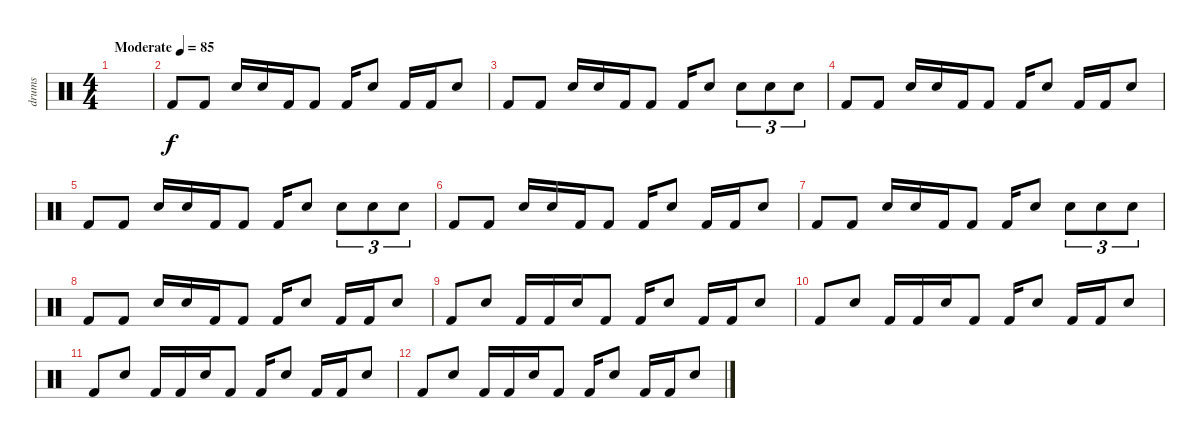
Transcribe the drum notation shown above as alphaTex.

\track ("drums" "drums") {instrument percussion}
\staff {score}
\articulation defaults
\ts (4 4)
\tempo (85 "Moderate")
\clef neutral
\ks c
|
"Kick (hit) 2".8 "Kick (hit) 2".8 "Electric Snare (hit)".16 "Electric Snare (hit)".16 "Kick (hit) 2".16 "Kick (hit) 2".8 "Kick (hit) 2".16 "Electric Snare (hit)".8 "Kick (hit) 2".16 "Kick (hit) 2".16 "Electric Snare (hit)".8 |
"Kick (hit) 2".8 "Kick (hit) 2".8 "Electric Snare (hit)".16 "Electric Snare (hit)".16 "Kick (hit) 2".16 "Kick (hit) 2".8 "Kick (hit) 2".16 "Electric Snare (hit)".8 "Electric Snare (hit)".8{tu (3 2)} "Electric Snare (hit)".8{tu (3 2)} "Electric Snare (hit)".8{tu (3 2)} |
"Kick (hit) 2".8 "Kick (hit) 2".8 "Electric Snare (hit)".16 "Electric Snare (hit)".16 "Kick (hit) 2".16 "Kick (hit) 2".8 "Kick (hit) 2".16 "Electric Snare (hit)".8 "Kick (hit) 2".16 "Kick (hit) 2".16 "Electric Snare (hit)".8 |
"Kick (hit) 2".8 "Kick (hit) 2".8 "Electric Snare (hit)".16 "Electric Snare (hit)".16 "Kick (hit) 2".16 "Kick (hit) 2".8 "Kick (hit) 2".16 "Electric Snare (hit)".8 "Electric Snare (hit)".8{tu (3 2)} "Electric Snare (hit)".8{tu (3 2)} "Electric Snare (hit)".8{tu (3 2)} |
"Kick (hit) 2".8 "Kick (hit) 2".8 "Electric Snare (hit)".16 "Electric Snare (hit)".16 "Kick (hit) 2".16 "Kick (hit) 2".8 "Kick (hit) 2".16 "Electric Snare (hit)".8 "Kick (hit) 2".16 "Kick (hit) 2".16 "Electric Snare (hit)".8 |
"Kick (hit) 2".8 "Kick (hit) 2".8 "Electric Snare (hit)".16 "Electric Snare (hit)".16 "Kick (hit) 2".16 "Kick (hit) 2".8 "Kick (hit) 2".16 "Electric Snare (hit)".8 "Electric Snare (hit)".8{tu (3 2)} "Electric Snare (hit)".8{tu (3 2)} "Electric Snare (hit)".8{tu (3 2)} |
"Kick (hit) 2".8 "Kick (hit) 2".8 "Electric Snare (hit)".16 "Electric Snare (hit)".16 "Kick (hit) 2".16 "Kick (hit) 2".8 "Kick (hit) 2".16 "Electric Snare (hit)".8 "Kick (hit) 2".16 "Kick (hit) 2".16 "Electric Snare (hit)".8 |
"Kick (hit) 2".8 "Electric Snare (hit)".8 "Kick (hit) 2".16 "Kick (hit) 2".16 "Electric Snare (hit)".16 "Kick (hit) 2".8 "Kick (hit) 2".16 "Electric Snare (hit)".8 "Kick (hit) 2".16 "Kick (hit) 2".16 "Electric Snare (hit)".8 |
"Kick (hit) 2".8 "Electric Snare (hit)".8 "Kick (hit) 2".16 "Kick (hit) 2".16 "Electric Snare (hit)".16 "Kick (hit) 2".8 "Kick (hit) 2".16 "Electric Snare (hit)".8 "Kick (hit) 2".16 "Kick (hit) 2".16 "Electric Snare (hit)".8 |
"Kick (hit) 2".8 "Electric Snare (hit)".8 "Kick (hit) 2".16 "Kick (hit) 2".16 "Electric Snare (hit)".16 "Kick (hit) 2".8 "Kick (hit) 2".16 "Electric Snare (hit)".8 "Kick (hit) 2".16 "Kick (hit) 2".16 "Electric Snare (hit)".8 |
"Kick (hit) 2".8 "Electric Snare (hit)".8 "Kick (hit) 2".16 "Kick (hit) 2".16 "Electric Snare (hit)".16 "Kick (hit) 2".8 "Kick (hit) 2".16 "Electric Snare (hit)".8 "Kick (hit) 2".16 "Kick (hit) 2".16 "Electric Snare (hit)".8
